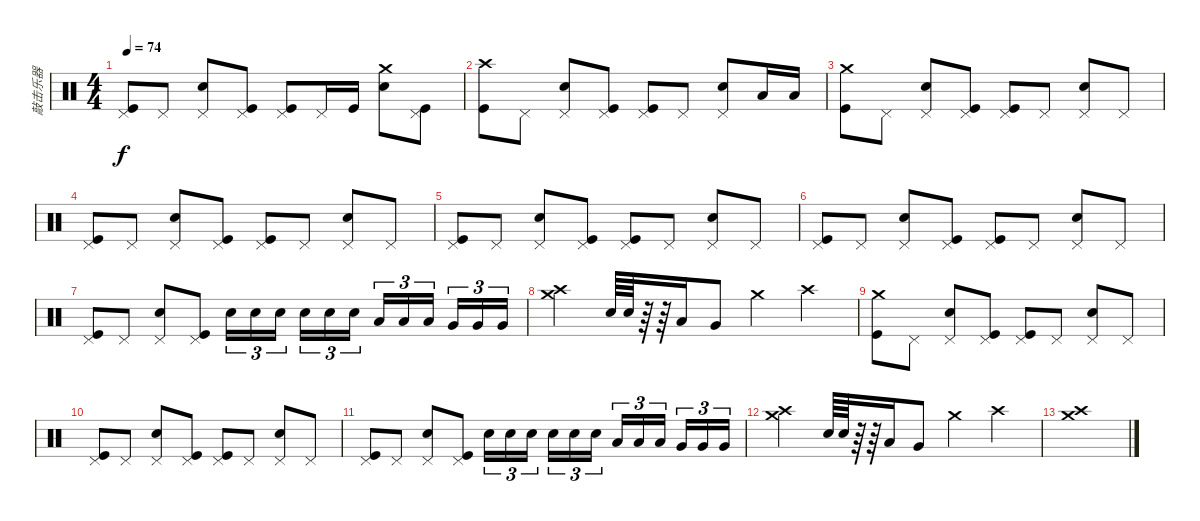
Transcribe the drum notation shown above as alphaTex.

\track ("敲击乐器" "敲击乐器") {instrument percussion}
\staff {score}
\articulation defaults
\ts (4 4)
\tempo 74
\clef neutral
\ks c
("Pedal Hi-Hat (hit)" "Kick (hit)").8{dy f} "Pedal Hi-Hat (hit)".8 ("Pedal Hi-Hat (hit)" "Snare (hit) 2").8 ("Pedal Hi-Hat (hit)" "Kick (hit)").8 ("Pedal Hi-Hat (hit)" "Kick (hit)").8 "Pedal Hi-Hat (hit)".16 "Kick (hit)".16 ("Crash medium (hit)" "Snare (hit) 2").8 ("Pedal Hi-Hat (hit)" "Kick (hit)").8 |
("Crash high (hit)" "Kick (hit)").8 "Pedal Hi-Hat (hit)".8 ("Pedal Hi-Hat (hit)" "Snare (hit) 2").8 ("Pedal Hi-Hat (hit)" "Kick (hit)").8 ("Pedal Hi-Hat (hit)" "Kick (hit)").8 "Pedal Hi-Hat (hit)".8 ("Pedal Hi-Hat (hit)" "Snare (hit) 2").8 "Low Tom (hit)".16 "Low Tom (hit)".16 |
("Crash medium (hit)" "Kick (hit)").8 "Pedal Hi-Hat (hit)".8 ("Pedal Hi-Hat (hit)" "Snare (hit) 2").8 ("Pedal Hi-Hat (hit)" "Kick (hit)").8 ("Pedal Hi-Hat (hit)" "Kick (hit)").8 "Pedal Hi-Hat (hit)".8 ("Pedal Hi-Hat (hit)" "Snare (hit) 2").8 "Pedal Hi-Hat (hit)".8 |
("Pedal Hi-Hat (hit)" "Kick (hit)").8 "Pedal Hi-Hat (hit)".8 ("Pedal Hi-Hat (hit)" "Snare (hit) 2").8 ("Pedal Hi-Hat (hit)" "Kick (hit)").8 ("Pedal Hi-Hat (hit)" "Kick (hit)").8 "Pedal Hi-Hat (hit)".8 ("Pedal Hi-Hat (hit)" "Snare (hit) 2").8 "Pedal Hi-Hat (hit)".8 |
("Pedal Hi-Hat (hit)" "Kick (hit)").8 "Pedal Hi-Hat (hit)".8 ("Pedal Hi-Hat (hit)" "Snare (hit) 2").8 ("Pedal Hi-Hat (hit)" "Kick (hit)").8 ("Pedal Hi-Hat (hit)" "Kick (hit)").8 "Pedal Hi-Hat (hit)".8 ("Pedal Hi-Hat (hit)" "Snare (hit) 2").8 "Pedal Hi-Hat (hit)".8 |
("Pedal Hi-Hat (hit)" "Kick (hit)").8 "Pedal Hi-Hat (hit)".8 ("Pedal Hi-Hat (hit)" "Snare (hit) 2").8 ("Pedal Hi-Hat (hit)" "Kick (hit)").8 ("Pedal Hi-Hat (hit)" "Kick (hit)").8 "Pedal Hi-Hat (hit)".8 ("Pedal Hi-Hat (hit)" "Snare (hit) 2").8 "Pedal Hi-Hat (hit)".8 |
("Pedal Hi-Hat (hit)" "Kick (hit)").8 "Pedal Hi-Hat (hit)".8 ("Pedal Hi-Hat (hit)" "Snare (hit) 2").8 ("Pedal Hi-Hat (hit)" "Kick (hit)").8 "Snare (hit) 2".16{tu (3 2)} "Snare (hit) 2".16{tu (3 2)} "Snare (hit) 2".16{tu (3 2)} "Snare (hit) 2".16{tu (3 2)} "Snare (hit) 2".16{tu (3 2)} "Snare (hit) 2".16{tu (3 2)} "Low Tom (hit)".16{tu (3 2)} "Low Tom (hit)".16{tu (3 2)} "Low Tom (hit)".16{tu (3 2)} "Very Low Tom (hit)".16{tu (3 2)} "Very Low Tom (hit)".16{tu (3 2)} "Very Low Tom (hit)".16{tu (3 2)} |
("Crash medium (hit)" "Crash high (hit)").4 "Snare (hit) 2".64 "Snare (hit) 2".64 r.64 r.64 "Low Tom (hit)".16 "Very Low Tom (hit)".8 "Crash medium (hit)".4 "Crash high (hit)".4 |
("Crash medium (hit)" "Kick (hit)").8 "Pedal Hi-Hat (hit)".8 ("Pedal Hi-Hat (hit)" "Snare (hit) 2").8 ("Pedal Hi-Hat (hit)" "Kick (hit)").8 ("Pedal Hi-Hat (hit)" "Kick (hit)").8 "Pedal Hi-Hat (hit)".8 ("Pedal Hi-Hat (hit)" "Snare (hit) 2").8 "Pedal Hi-Hat (hit)".8 |
("Pedal Hi-Hat (hit)" "Kick (hit)").8{volume 14} "Pedal Hi-Hat (hit)".8 ("Pedal Hi-Hat (hit)" "Snare (hit) 2").8 ("Pedal Hi-Hat (hit)" "Kick (hit)").8 ("Pedal Hi-Hat (hit)" "Kick (hit)").8{volume 13} "Pedal Hi-Hat (hit)".8 ("Pedal Hi-Hat (hit)" "Snare (hit) 2").8 "Pedal Hi-Hat (hit)".8 |
("Pedal Hi-Hat (hit)" "Kick (hit)").8{volume 12} "Pedal Hi-Hat (hit)".8 ("Pedal Hi-Hat (hit)" "Snare (hit) 2").8 ("Pedal Hi-Hat (hit)" "Kick (hit)").8 "Snare (hit) 2".16{tu (3 2) volume 11} "Snare (hit) 2".16{tu (3 2)} "Snare (hit) 2".16{tu (3 2)} "Snare (hit) 2".16{tu (3 2)} "Snare (hit) 2".16{tu (3 2)} "Snare (hit) 2".16{tu (3 2)} "Low Tom (hit)".16{tu (3 2)} "Low Tom (hit)".16{tu (3 2)} "Low Tom (hit)".16{tu (3 2)} "Very Low Tom (hit)".16{tu (3 2)} "Very Low Tom (hit)".16{tu (3 2)} "Very Low Tom (hit)".16{tu (3 2)} |
("Crash medium (hit)" "Crash high (hit)").4{volume 10} "Snare (hit) 2".64 "Snare (hit) 2".64 r.64 r.64 "Low Tom (hit)".16 "Very Low Tom (hit)".8 "Crash medium (hit)".4{volume 9} "Crash high (hit)".4 |
("Crash medium (hit)" "Crash high (hit)").1{volume 8}
